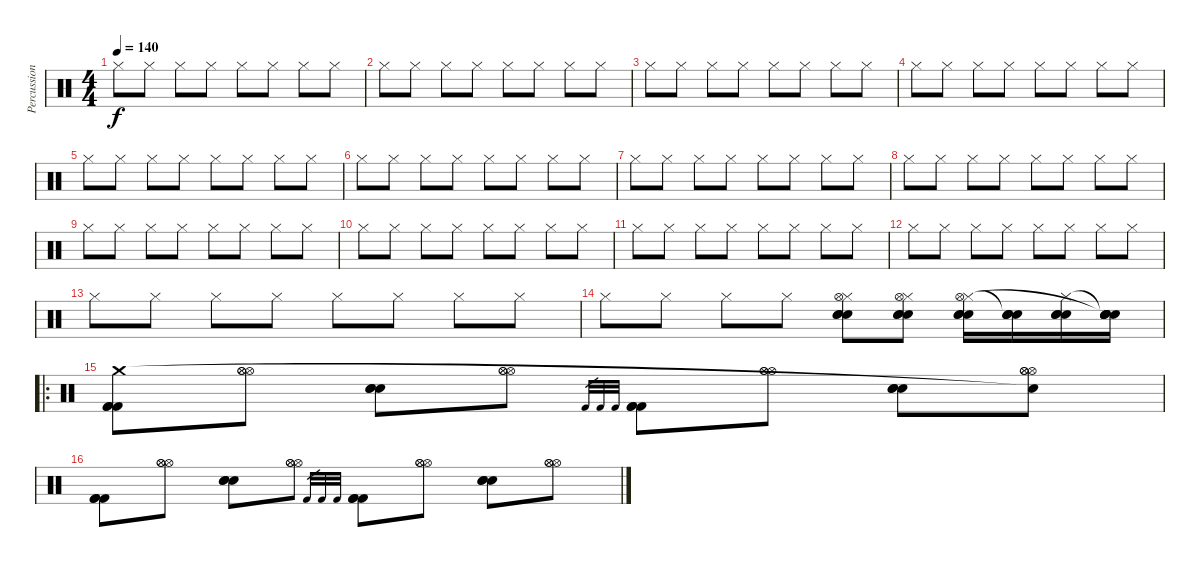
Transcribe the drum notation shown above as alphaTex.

\track ("Percussion" "Percussion") {instrument percussion}
\staff {score}
\articulation defaults
\ts (4 4)
\tempo 140
\clef neutral
\ks c "Hi-Hat (closed)".8{dy f} "Hi-Hat (closed)".8 "Hi-Hat (closed)".8 "Hi-Hat (closed)".8 "Hi-Hat (closed)".8 "Hi-Hat (closed)".8 "Hi-Hat (closed)".8 "Hi-Hat (closed)".8
|
"Hi-Hat (closed)".8 "Hi-Hat (closed)".8 "Hi-Hat (closed)".8 "Hi-Hat (closed)".8 "Hi-Hat (closed)".8 "Hi-Hat (closed)".8 "Hi-Hat (closed)".8 "Hi-Hat (closed)".8 |
"Hi-Hat (closed)".8 "Hi-Hat (closed)".8 "Hi-Hat (closed)".8 "Hi-Hat (closed)".8 "Hi-Hat (closed)".8 "Hi-Hat (closed)".8 "Hi-Hat (closed)".8 "Hi-Hat (closed)".8 |
"Hi-Hat (closed)".8 "Hi-Hat (closed)".8 "Hi-Hat (closed)".8 "Hi-Hat (closed)".8 "Hi-Hat (closed)".8 "Hi-Hat (closed)".8 "Hi-Hat (closed)".8 "Hi-Hat (closed)".8 |
"Hi-Hat (closed)".8 "Hi-Hat (closed)".8 "Hi-Hat (closed)".8 "Hi-Hat (closed)".8 "Hi-Hat (closed)".8 "Hi-Hat (closed)".8 "Hi-Hat (closed)".8 "Hi-Hat (closed)".8 |
"Hi-Hat (closed)".8 "Hi-Hat (closed)".8 "Hi-Hat (closed)".8 "Hi-Hat (closed)".8 "Hi-Hat (closed)".8 "Hi-Hat (closed)".8 "Hi-Hat (closed)".8 "Hi-Hat (closed)".8 |
"Hi-Hat (closed)".8 "Hi-Hat (closed)".8 "Hi-Hat (closed)".8 "Hi-Hat (closed)".8 "Hi-Hat (closed)".8 "Hi-Hat (closed)".8 "Hi-Hat (closed)".8 "Hi-Hat (closed)".8 |
"Hi-Hat (closed)".8 "Hi-Hat (closed)".8 "Hi-Hat (closed)".8 "Hi-Hat (closed)".8 "Hi-Hat (closed)".8 "Hi-Hat (closed)".8 "Hi-Hat (closed)".8 "Hi-Hat (closed)".8 |
"Hi-Hat (closed)".8 "Hi-Hat (closed)".8 "Hi-Hat (closed)".8 "Hi-Hat (closed)".8 "Hi-Hat (closed)".8 "Hi-Hat (closed)".8 "Hi-Hat (closed)".8 "Hi-Hat (closed)".8 |
"Hi-Hat (closed)".8 "Hi-Hat (closed)".8 "Hi-Hat (closed)".8 "Hi-Hat (closed)".8 "Hi-Hat (closed)".8 "Hi-Hat (closed)".8 "Hi-Hat (closed)".8 "Hi-Hat (closed)".8 |
"Hi-Hat (closed)".8 "Hi-Hat (closed)".8 "Hi-Hat (closed)".8 "Hi-Hat (closed)".8 "Hi-Hat (closed)".8 "Hi-Hat (closed)".8 "Hi-Hat (closed)".8 "Hi-Hat (closed)".8 |
"Hi-Hat (closed)".8 "Hi-Hat (closed)".8 "Hi-Hat (closed)".8 "Hi-Hat (closed)".8 "Hi-Hat (closed)".8 "Hi-Hat (closed)".8 "Hi-Hat (closed)".8 "Hi-Hat (closed)".8 |
"Hi-Hat (closed)".8 "Hi-Hat (closed)".8 "Hi-Hat (closed)".8 "Hi-Hat (closed)".8 "Hi-Hat (closed)".8 "Hi-Hat (closed)".8 "Hi-Hat (closed)".8 "Hi-Hat (closed)".8 |
"Hi-Hat (closed)".8 "Hi-Hat (closed)".8 "Hi-Hat (closed)".8 "Hi-Hat (closed)".8 ("Electric Snare (hit)" "Electric Snare (hit)" "Electric Snare (hit)" "Hi-Hat (closed)" "Hi-Hat (open)").8 ("Electric Snare (hit)" "Electric Snare (hit)" "Electric Snare (hit)" "Hi-Hat (closed)" "Hi-Hat (open)").8 ("Electric Snare (hit)" "Electric Snare (hit)" "Electric Snare (hit)" "Hi-Hat (closed)" "Hi-Hat (open)").16 ("Electric Snare (hit)" "Electric Snare (hit)" "Electric Snare (hit)" "Snare (hit)"{t}).16 ("Electric Snare (hit)" "Electric Snare (hit)" "Electric Snare (hit)" "Hi-Hat (closed)").16 ("Electric Snare (hit)" "Electric Snare (hit)" "Electric Snare (hit)" "Snare (hit)"{t} "Snare (hit)"{t}).16 |
\ro
("Kick (hit) 2" "Kick (hit) 2" "Kick (hit) 2" "Crash medium (hit)").8 ("Hi-Hat (open)" "Hi-Hat (open)" "Hi-Hat (open)").8 ("Electric Snare (hit)" "Electric Snare (hit)" "Electric Snare (hit)").8 ("Hi-Hat (open)" "Hi-Hat (open)" "Hi-Hat (open)").8 "Kick (hit) 2".32{gr} "Kick (hit) 2".32{gr} "Kick (hit) 2".32{gr} ("Kick (hit) 2" "Kick (hit) 2" "Kick (hit) 2").8 ("Hi-Hat (open)" "Hi-Hat (open)" "Hi-Hat (open)").8 ("Electric Snare (hit)" "Electric Snare (hit)" "Electric Snare (hit)").8 ("Hi-Hat (open)" "Hi-Hat (open)" "Hi-Hat (open)" "Snare (hit)"{t}).8 |
("Kick (hit) 2" "Kick (hit) 2" "Kick (hit) 2").8 ("Hi-Hat (open)" "Hi-Hat (open)" "Hi-Hat (open)").8 ("Electric Snare (hit)" "Electric Snare (hit)" "Electric Snare (hit)").8 ("Hi-Hat (open)" "Hi-Hat (open)" "Hi-Hat (open)").8 "Kick (hit) 2".32{gr} "Kick (hit) 2".32{gr} "Kick (hit) 2".32{gr} ("Kick (hit) 2" "Kick (hit) 2" "Kick (hit) 2").8 ("Hi-Hat (open)" "Hi-Hat (open)" "Hi-Hat (open)").8 ("Electric Snare (hit)" "Electric Snare (hit)" "Electric Snare (hit)").8 ("Hi-Hat (open)" "Hi-Hat (open)" "Hi-Hat (open)").8
